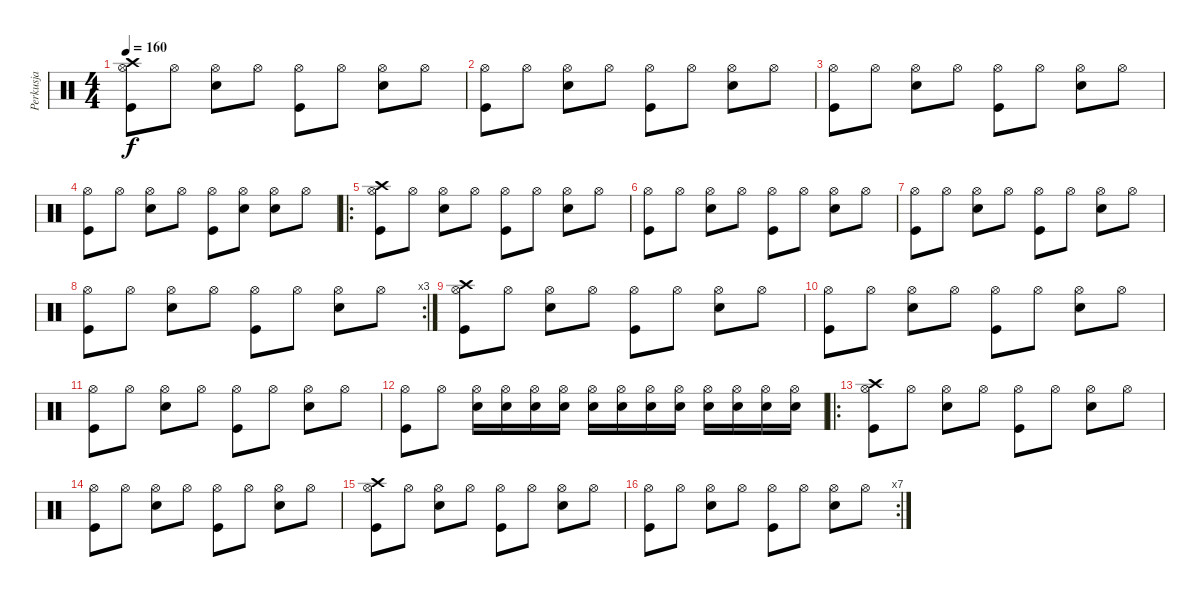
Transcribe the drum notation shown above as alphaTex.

\track ("Perkusja" "Perkusja") {instrument percussion}
\staff {score}
\articulation defaults
\ts (4 4)
\tempo 160
\clef neutral
\ks c
("Hi-Hat (open)" "Crash high (hit)" "Kick (hit)").8{dy f} "Hi-Hat (open)".8 ("Hi-Hat (open)" "Electric Snare (hit)").8 "Hi-Hat (open)".8 ("Hi-Hat (open)" "Kick (hit)").8 "Hi-Hat (open)".8 ("Hi-Hat (open)" "Electric Snare (hit)").8 "Hi-Hat (open)".8 |
("Hi-Hat (open)" "Kick (hit)").8 "Hi-Hat (open)".8 ("Hi-Hat (open)" "Electric Snare (hit)").8 "Hi-Hat (open)".8 ("Hi-Hat (open)" "Kick (hit)").8 "Hi-Hat (open)".8 ("Hi-Hat (open)" "Electric Snare (hit)").8 "Hi-Hat (open)".8 |
("Hi-Hat (open)" "Kick (hit)").8 "Hi-Hat (open)".8 ("Hi-Hat (open)" "Electric Snare (hit)").8 "Hi-Hat (open)".8 ("Hi-Hat (open)" "Kick (hit)").8 "Hi-Hat (open)".8 ("Hi-Hat (open)" "Electric Snare (hit)").8 "Hi-Hat (open)".8 |
("Hi-Hat (open)" "Kick (hit)").8 "Hi-Hat (open)".8 ("Hi-Hat (open)" "Electric Snare (hit)").8 "Hi-Hat (open)".8 ("Hi-Hat (open)" "Kick (hit)").8 ("Hi-Hat (open)" "Electric Snare (hit)").8 ("Hi-Hat (open)" "Electric Snare (hit)").8 "Hi-Hat (open)".8 |
\ro
("Hi-Hat (open)" "Crash high (hit)" "Kick (hit)").8 "Hi-Hat (open)".8 ("Hi-Hat (open)" "Electric Snare (hit)").8 "Hi-Hat (open)".8 ("Hi-Hat (open)" "Kick (hit)").8 "Hi-Hat (open)".8 ("Hi-Hat (open)" "Electric Snare (hit)").8 "Hi-Hat (open)".8 |
("Hi-Hat (open)" "Kick (hit)").8 "Hi-Hat (open)".8 ("Hi-Hat (open)" "Electric Snare (hit)").8 "Hi-Hat (open)".8 ("Hi-Hat (open)" "Kick (hit)").8 "Hi-Hat (open)".8 ("Hi-Hat (open)" "Electric Snare (hit)").8 "Hi-Hat (open)".8 |
("Hi-Hat (open)" "Kick (hit)").8 "Hi-Hat (open)".8 ("Hi-Hat (open)" "Electric Snare (hit)").8 "Hi-Hat (open)".8 ("Hi-Hat (open)" "Kick (hit)").8 "Hi-Hat (open)".8 ("Hi-Hat (open)" "Electric Snare (hit)").8 "Hi-Hat (open)".8 |
\rc 3
("Hi-Hat (open)" "Kick (hit)").8 "Hi-Hat (open)".8 ("Hi-Hat (open)" "Electric Snare (hit)").8 "Hi-Hat (open)".8 ("Hi-Hat (open)" "Kick (hit)").8 "Hi-Hat (open)".8 ("Hi-Hat (open)" "Electric Snare (hit)").8 "Hi-Hat (open)".8 |
("Hi-Hat (open)" "Crash high (hit)" "Kick (hit)").8 "Hi-Hat (open)".8 ("Hi-Hat (open)" "Electric Snare (hit)").8 "Hi-Hat (open)".8 ("Hi-Hat (open)" "Kick (hit)").8 "Hi-Hat (open)".8 ("Hi-Hat (open)" "Electric Snare (hit)").8 "Hi-Hat (open)".8 |
("Hi-Hat (open)" "Kick (hit)").8 "Hi-Hat (open)".8 ("Hi-Hat (open)" "Electric Snare (hit)").8 "Hi-Hat (open)".8 ("Hi-Hat (open)" "Kick (hit)").8 "Hi-Hat (open)".8 ("Hi-Hat (open)" "Electric Snare (hit)").8 "Hi-Hat (open)".8 |
("Hi-Hat (open)" "Kick (hit)").8 "Hi-Hat (open)".8 ("Hi-Hat (open)" "Electric Snare (hit)").8 "Hi-Hat (open)".8 ("Hi-Hat (open)" "Kick (hit)").8 "Hi-Hat (open)".8 ("Hi-Hat (open)" "Electric Snare (hit)").8 "Hi-Hat (open)".8 |
("Hi-Hat (open)" "Kick (hit)").8 "Hi-Hat (open)".8 ("Hi-Hat (open)" "Electric Snare (hit)").16 ("Hi-Hat (open)" "Electric Snare (hit)").16 ("Hi-Hat (open)" "Electric Snare (hit)").16 ("Hi-Hat (open)" "Electric Snare (hit)").16 ("Hi-Hat (open)" "Electric Snare (hit)").16 ("Hi-Hat (open)" "Electric Snare (hit)").16 ("Hi-Hat (open)" "Electric Snare (hit)").16 ("Hi-Hat (open)" "Electric Snare (hit)").16 ("Hi-Hat (open)" "Electric Snare (hit)").16 ("Hi-Hat (open)" "Electric Snare (hit)").16 ("Hi-Hat (open)" "Electric Snare (hit)").16 ("Hi-Hat (open)" "Electric Snare (hit)").16 |
\ro
("Hi-Hat (open)" "Crash high (hit)" "Kick (hit)").8 "Hi-Hat (open)".8 ("Hi-Hat (open)" "Electric Snare (hit)").8 "Hi-Hat (open)".8 ("Hi-Hat (open)" "Kick (hit)").8 "Hi-Hat (open)".8 ("Hi-Hat (open)" "Electric Snare (hit)").8 "Hi-Hat (open)".8 |
("Hi-Hat (open)" "Kick (hit)").8 "Hi-Hat (open)".8 ("Hi-Hat (open)" "Electric Snare (hit)").8 "Hi-Hat (open)".8 ("Hi-Hat (open)" "Kick (hit)").8 "Hi-Hat (open)".8 ("Hi-Hat (open)" "Electric Snare (hit)").8 "Hi-Hat (open)".8 |
("Hi-Hat (open)" "Crash high (hit)" "Kick (hit)").8 "Hi-Hat (open)".8 ("Hi-Hat (open)" "Electric Snare (hit)").8 "Hi-Hat (open)".8 ("Hi-Hat (open)" "Kick (hit)").8 "Hi-Hat (open)".8 ("Hi-Hat (open)" "Electric Snare (hit)").8 "Hi-Hat (open)".8 |
\rc 7
("Hi-Hat (open)" "Kick (hit)").8 "Hi-Hat (open)".8 ("Hi-Hat (open)" "Electric Snare (hit)").8 "Hi-Hat (open)".8 ("Hi-Hat (open)" "Kick (hit)").8 "Hi-Hat (open)".8 ("Hi-Hat (open)" "Electric Snare (hit)").8 "Hi-Hat (open)".8
